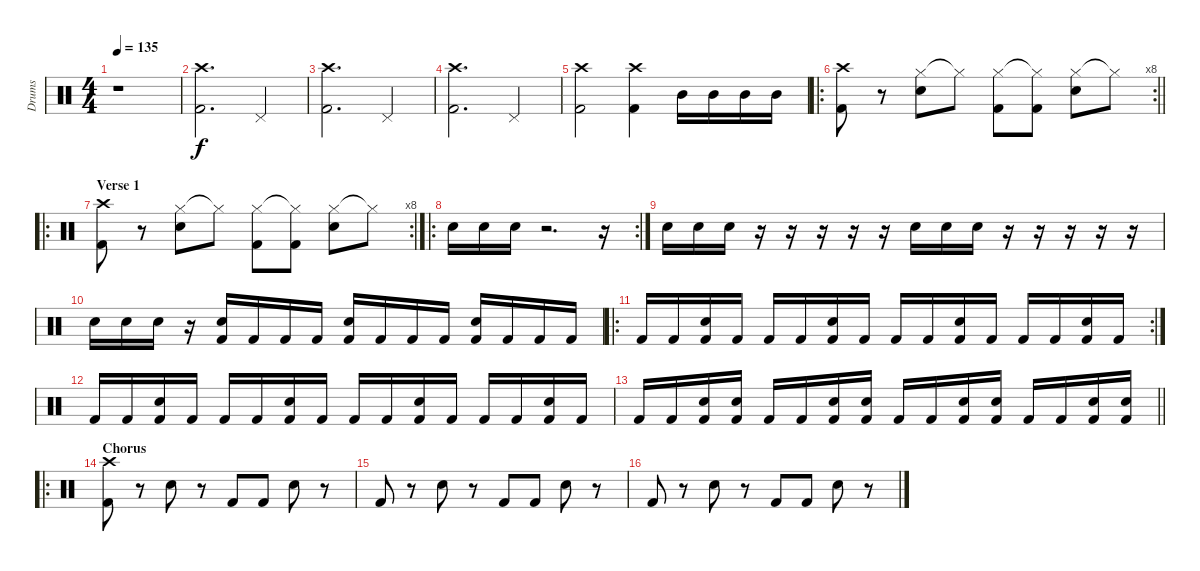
\track ("Drums" "Drums") {instrument percussion}
\staff {score}
\articulation defaults
\ts (4 4)
\tempo 135
\clef neutral
\ks c
r.1{dy f} |
("Crash high (hit)" "Kick (hit) 2").2{d} "Pedal Hi-Hat (hit)".4 |
("Crash high (hit)" "Kick (hit) 2").2{d} "Pedal Hi-Hat (hit)".4 |
("Crash high (hit)" "Kick (hit) 2").2{d} "Pedal Hi-Hat (hit)".4 |
("Crash high (hit)" "Kick (hit) 2").2 ("Crash high (hit)" "Kick (hit) 2").4 "Mid Tom (hit)".16 "Mid Tom (hit)".16 "Mid Tom (hit)".16 "Mid Tom (hit)".16 |
\ro
\rc 8
\barLineRight lightlight
("Crash high (hit)" "Kick (hit) 2").8 r.8 ("Hi-Hat (closed)" "Snare (hit) 2").8 "Hi-Hat (closed)"{t}.8 ("Hi-Hat (closed)" "Kick (hit) 2").8 ("Hi-Hat (closed)"{t} "Kick (hit) 2").8 ("Hi-Hat (closed)" "Snare (hit) 2").8 "Hi-Hat (closed)"{t}.8 |
\ro
\rc 8
\section ("" "Verse 1")
("Crash high (hit)" "Kick (hit) 2").8 r.8 ("Hi-Hat (closed)" "Snare (hit) 2").8 "Hi-Hat (closed)"{t}.8 ("Hi-Hat (closed)" "Kick (hit) 2").8 ("Hi-Hat (closed)"{t} "Kick (hit) 2").8 ("Hi-Hat (closed)" "Snare (hit) 2").8 "Hi-Hat (closed)"{t}.8 |
\ro
\rc 2 "Snare (hit) 2".16 "Snare (hit) 2".16 "Snare (hit) 2".16
r.2{d} r.16 |
"Snare (hit) 2".16 "Snare (hit) 2".16 "Snare (hit) 2".16 r.16 r.16 r.16 r.16 r.16 "Snare (hit) 2".16 "Snare (hit) 2".16 "Snare (hit) 2".16 r.16 r.16 r.16 r.16 r.16 |
"Snare (hit) 2".16 "Snare (hit) 2".16 "Snare (hit) 2".16 r.16 ("Snare (hit) 2" "Kick (hit) 2").16 "Kick (hit) 2".16 "Kick (hit) 2".16 "Kick (hit) 2".16 ("Snare (hit) 2" "Kick (hit) 2").16 "Kick (hit) 2".16 "Kick (hit) 2".16 "Kick (hit) 2".16 ("Snare (hit) 2" "Kick (hit) 2").16 "Kick (hit) 2".16 "Kick (hit) 2".16 "Kick (hit) 2".16 |
\ro
\rc 2 "Kick (hit) 2".16 "Kick (hit) 2".16
("Snare (hit) 2" "Kick (hit) 2").16 "Kick (hit) 2".16 "Kick (hit) 2".16 "Kick (hit) 2".16 ("Snare (hit) 2" "Kick (hit) 2").16 "Kick (hit) 2".16 "Kick (hit) 2".16 "Kick (hit) 2".16 ("Snare (hit) 2" "Kick (hit) 2").16 "Kick (hit) 2".16 "Kick (hit) 2".16 "Kick (hit) 2".16 ("Snare (hit) 2" "Kick (hit) 2").16 "Kick (hit) 2".16 |
"Kick (hit) 2".16 "Kick (hit) 2".16 ("Snare (hit) 2" "Kick (hit) 2").16 "Kick (hit) 2".16 "Kick (hit) 2".16 "Kick (hit) 2".16 ("Snare (hit) 2" "Kick (hit) 2").16 "Kick (hit) 2".16 "Kick (hit) 2".16 "Kick (hit) 2".16 ("Snare (hit) 2" "Kick (hit) 2").16 "Kick (hit) 2".16 "Kick (hit) 2".16 "Kick (hit) 2".16 ("Snare (hit) 2" "Kick (hit) 2").16 "Kick (hit) 2".16 |
\barLineRight lightlight "Kick (hit) 2".16 "Kick (hit) 2".16
("Snare (hit) 2" "Kick (hit) 2").16 ("Snare (hit) 2" "Kick (hit) 2").16 "Kick (hit) 2".16 "Kick (hit) 2".16 ("Snare (hit) 2" "Kick (hit) 2").16 ("Snare (hit) 2" "Kick (hit) 2").16 "Kick (hit) 2".16 "Kick (hit) 2".16 ("Snare (hit) 2" "Kick (hit) 2").16 ("Snare (hit) 2" "Kick (hit) 2").16 "Kick (hit) 2".16 "Kick (hit) 2".16 ("Snare (hit) 2" "Kick (hit) 2").16 ("Snare (hit) 2" "Kick (hit) 2").16 |
\ro
\section ("" "Chorus")
("Crash high (hit)" "Kick (hit) 2").8 r.8 "Snare (hit) 2".8 r.8 "Kick (hit) 2".8 "Kick (hit) 2".8 "Snare (hit) 2".8 r.8 |
"Kick (hit) 2".8 r.8 "Snare (hit) 2".8 r.8 "Kick (hit) 2".8 "Kick (hit) 2".8 "Snare (hit) 2".8 r.8 |
"Kick (hit) 2".8 r.8 "Snare (hit) 2".8 r.8 "Kick (hit) 2".8 "Kick (hit) 2".8 "Snare (hit) 2".8 r.8
